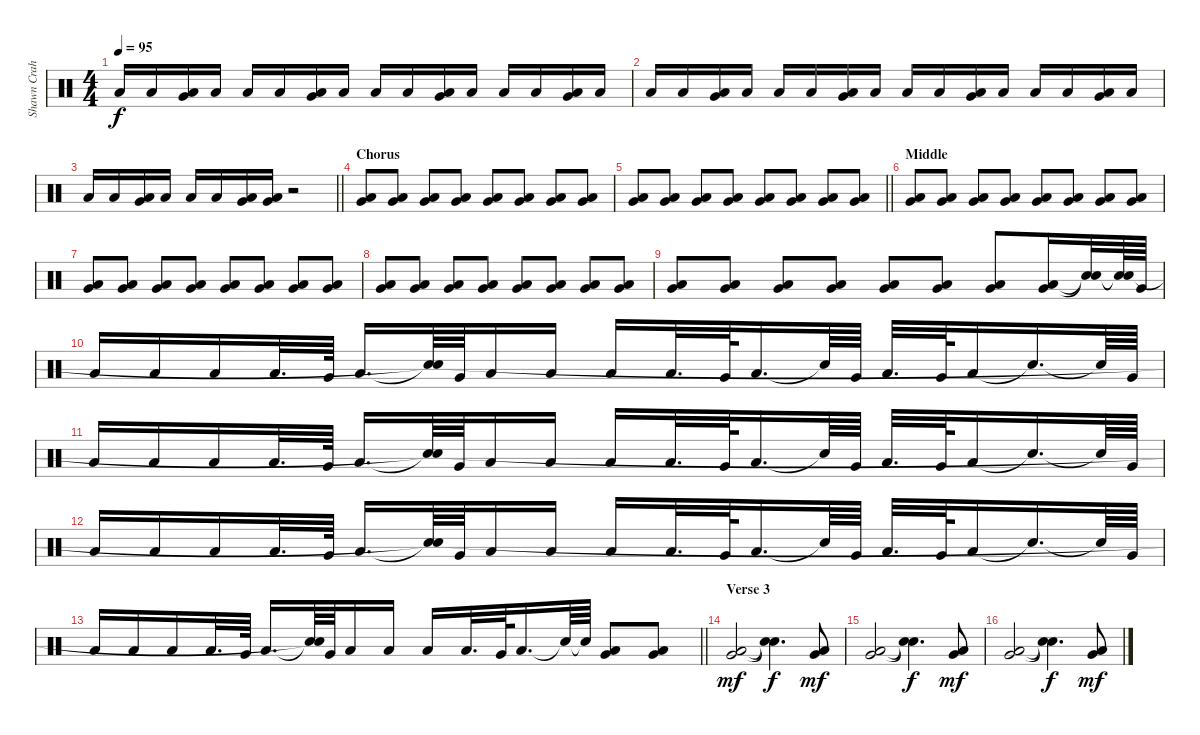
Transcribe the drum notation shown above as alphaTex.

\track ("Shawn Crahan" "Shawn Crah") {instrument percussion}
\staff {score}
\articulation defaults
\ts (4 4)
\tempo 95
\clef neutral
\ks c "Low Floor Tom (hit)".16{dy f} "Low Floor Tom (hit)".16
("Very Low Tom (hit)" "Low Floor Tom (hit)").16 "Low Floor Tom (hit)".16 "Low Floor Tom (hit)".16 "Low Floor Tom (hit)".16 ("Very Low Tom (hit)" "Low Floor Tom (hit)").16 "Low Floor Tom (hit)".16 "Low Floor Tom (hit)".16 "Low Floor Tom (hit)".16 ("Very Low Tom (hit)" "Low Floor Tom (hit)").16 "Low Floor Tom (hit)".16 "Low Floor Tom (hit)".16 "Low Floor Tom (hit)".16 ("Very Low Tom (hit)" "Low Floor Tom (hit)").16 "Low Floor Tom (hit)".16 |
"Low Floor Tom (hit)".16 "Low Floor Tom (hit)".16 ("Very Low Tom (hit)" "Low Floor Tom (hit)").16 "Low Floor Tom (hit)".16 "Low Floor Tom (hit)".16 "Low Floor Tom (hit)".16 ("Very Low Tom (hit)" "Low Floor Tom (hit)").16 "Low Floor Tom (hit)".16 "Low Floor Tom (hit)".16 "Low Floor Tom (hit)".16 ("Very Low Tom (hit)" "Low Floor Tom (hit)").16 "Low Floor Tom (hit)".16 "Low Floor Tom (hit)".16 "Low Floor Tom (hit)".16 ("Very Low Tom (hit)" "Low Floor Tom (hit)").16 "Low Floor Tom (hit)".16 |
\barLineRight lightlight "Low Floor Tom (hit)".16 "Low Floor Tom (hit)".16
("Very Low Tom (hit)" "Low Floor Tom (hit)").16 "Low Floor Tom (hit)".16 "Low Floor Tom (hit)".16 "Low Floor Tom (hit)".16 ("Very Low Tom (hit)" "Low Floor Tom (hit)").16 ("Very Low Tom (hit)" "Low Floor Tom (hit)").16 r.2 |
\section ("" "Chorus")
("Very Low Tom (hit)" "Low Floor Tom (hit)").8 ("Very Low Tom (hit)" "Low Floor Tom (hit)").8 ("Very Low Tom (hit)" "Low Floor Tom (hit)").8 ("Very Low Tom (hit)" "Low Floor Tom (hit)").8 ("Very Low Tom (hit)" "Low Floor Tom (hit)").8 ("Very Low Tom (hit)" "Low Floor Tom (hit)").8 ("Very Low Tom (hit)" "Low Floor Tom (hit)").8 ("Very Low Tom (hit)" "Low Floor Tom (hit)").8 |
\barLineRight lightlight
("Very Low Tom (hit)" "Low Floor Tom (hit)").8 ("Very Low Tom (hit)" "Low Floor Tom (hit)").8 ("Very Low Tom (hit)" "Low Floor Tom (hit)").8 ("Very Low Tom (hit)" "Low Floor Tom (hit)").8 ("Very Low Tom (hit)" "Low Floor Tom (hit)").8 ("Very Low Tom (hit)" "Low Floor Tom (hit)").8 ("Very Low Tom (hit)" "Low Floor Tom (hit)").8 ("Very Low Tom (hit)" "Low Floor Tom (hit)").8 |
\section ("" "Middle")
("Very Low Tom (hit)" "Low Floor Tom (hit)").8 ("Very Low Tom (hit)" "Low Floor Tom (hit)").8 ("Very Low Tom (hit)" "Low Floor Tom (hit)").8 ("Very Low Tom (hit)" "Low Floor Tom (hit)").8 ("Very Low Tom (hit)" "Low Floor Tom (hit)").8 ("Very Low Tom (hit)" "Low Floor Tom (hit)").8 ("Very Low Tom (hit)" "Low Floor Tom (hit)").8 ("Very Low Tom (hit)" "Low Floor Tom (hit)").8 |
("Very Low Tom (hit)" "Low Floor Tom (hit)").8 ("Very Low Tom (hit)" "Low Floor Tom (hit)").8 ("Very Low Tom (hit)" "Low Floor Tom (hit)").8 ("Very Low Tom (hit)" "Low Floor Tom (hit)").8 ("Very Low Tom (hit)" "Low Floor Tom (hit)").8 ("Very Low Tom (hit)" "Low Floor Tom (hit)").8 ("Very Low Tom (hit)" "Low Floor Tom (hit)").8 ("Very Low Tom (hit)" "Low Floor Tom (hit)").8 |
("Very Low Tom (hit)" "Low Floor Tom (hit)").8 ("Very Low Tom (hit)" "Low Floor Tom (hit)").8 ("Very Low Tom (hit)" "Low Floor Tom (hit)").8 ("Very Low Tom (hit)" "Low Floor Tom (hit)").8 ("Very Low Tom (hit)" "Low Floor Tom (hit)").8 ("Very Low Tom (hit)" "Low Floor Tom (hit)").8 ("Very Low Tom (hit)" "Low Floor Tom (hit)").8 ("Very Low Tom (hit)" "Low Floor Tom (hit)").8 |
("Very Low Tom (hit)" "Low Floor Tom (hit)").8 ("Very Low Tom (hit)" "Low Floor Tom (hit)").8 ("Very Low Tom (hit)" "Low Floor Tom (hit)").8 ("Very Low Tom (hit)" "Low Floor Tom (hit)").8 ("Very Low Tom (hit)" "Low Floor Tom (hit)").8 ("Very Low Tom (hit)" "Low Floor Tom (hit)").8 ("Very Low Tom (hit)" "Low Floor Tom (hit)").8 ("Very Low Tom (hit)" "Low Floor Tom (hit)").16 ("Snare (hit)"{t} "Snare (hit)"{t}).32 ("Snare (hit)"{t} "Snare (hit)"{t}).64 "Very Low Tom (hit)".64 |
"Low Floor Tom (hit)".16 "Low Floor Tom (hit)".16 "Low Floor Tom (hit)".16 "Low Floor Tom (hit)".32{d} "Very Low Tom (hit)".64 "Low Floor Tom (hit)".16{d} ("Snare (hit)"{t} "Snare (hit)"{t}).64 "Very Low Tom (hit)".64 "Low Floor Tom (hit)".16 "Low Floor Tom (hit)".16 "Low Floor Tom (hit)".16 "Low Floor Tom (hit)".32{d} "Very Low Tom (hit)".64 "Low Floor Tom (hit)".16{d} "Snare (hit)"{t}.64 "Very Low Tom (hit)".64 "Low Floor Tom (hit)".32{d} "Very Low Tom (hit)".64 "Low Floor Tom (hit)".16 "Snare (hit)"{t}.16{d} "Snare (hit)"{t}.64 "Very Low Tom (hit)".64 |
"Low Floor Tom (hit)".16 "Low Floor Tom (hit)".16 "Low Floor Tom (hit)".16 "Low Floor Tom (hit)".32{d} "Very Low Tom (hit)".64 "Low Floor Tom (hit)".16{d} ("Snare (hit)"{t} "Snare (hit)"{t}).64 "Very Low Tom (hit)".64 "Low Floor Tom (hit)".16 "Low Floor Tom (hit)".16 "Low Floor Tom (hit)".16 "Low Floor Tom (hit)".32{d} "Very Low Tom (hit)".64 "Low Floor Tom (hit)".16{d} "Snare (hit)"{t}.64 "Very Low Tom (hit)".64 "Low Floor Tom (hit)".32{d} "Very Low Tom (hit)".64 "Low Floor Tom (hit)".16 "Snare (hit)"{t}.16{d} "Snare (hit)"{t}.64 "Very Low Tom (hit)".64 |
"Low Floor Tom (hit)".16 "Low Floor Tom (hit)".16 "Low Floor Tom (hit)".16 "Low Floor Tom (hit)".32{d} "Very Low Tom (hit)".64 "Low Floor Tom (hit)".16{d} ("Snare (hit)"{t} "Snare (hit)"{t}).64 "Very Low Tom (hit)".64 "Low Floor Tom (hit)".16 "Low Floor Tom (hit)".16 "Low Floor Tom (hit)".16 "Low Floor Tom (hit)".32{d} "Very Low Tom (hit)".64 "Low Floor Tom (hit)".16{d} "Snare (hit)"{t}.64 "Very Low Tom (hit)".64 "Low Floor Tom (hit)".32{d} "Very Low Tom (hit)".64 "Low Floor Tom (hit)".16 "Snare (hit)"{t}.16{d} "Snare (hit)"{t}.64 "Very Low Tom (hit)".64 |
\barLineRight lightlight "Low Floor Tom (hit)".16 "Low Floor Tom (hit)".16 "Low Floor Tom (hit)".16 "Low Floor Tom (hit)".32{d} "Very Low Tom (hit)".64 "Low Floor Tom (hit)".16{d}
("Snare (hit)"{t} "Snare (hit)"{t}).64 "Very Low Tom (hit)".64 "Low Floor Tom (hit)".16 "Low Floor Tom (hit)".16 "Low Floor Tom (hit)".16 "Low Floor Tom (hit)".32{d} "Very Low Tom (hit)".64 "Low Floor Tom (hit)".16{d} "Snare (hit)"{t}.64 "Snare (hit)"{t}.64 ("Very Low Tom (hit)" "Low Floor Tom (hit)").8 ("Very Low Tom (hit)" "Low Floor Tom (hit)").8 |
\section ("" "Verse 3")
("Very Low Tom (hit)" "Low Floor Tom (hit)").2{dy mf} ("Snare (hit)"{t} "Snare (hit)"{t}).4{d dy f} ("Very Low Tom (hit)" "Low Floor Tom (hit)").8{dy mf} |
("Very Low Tom (hit)" "Low Floor Tom (hit)").2 ("Snare (hit)"{t} "Snare (hit)"{t}).4{d dy f} ("Very Low Tom (hit)" "Low Floor Tom (hit)").8{dy mf} |
("Very Low Tom (hit)" "Low Floor Tom (hit)").2 ("Snare (hit)"{t} "Snare (hit)"{t}).4{d dy f} ("Very Low Tom (hit)" "Low Floor Tom (hit)").8{dy mf}
